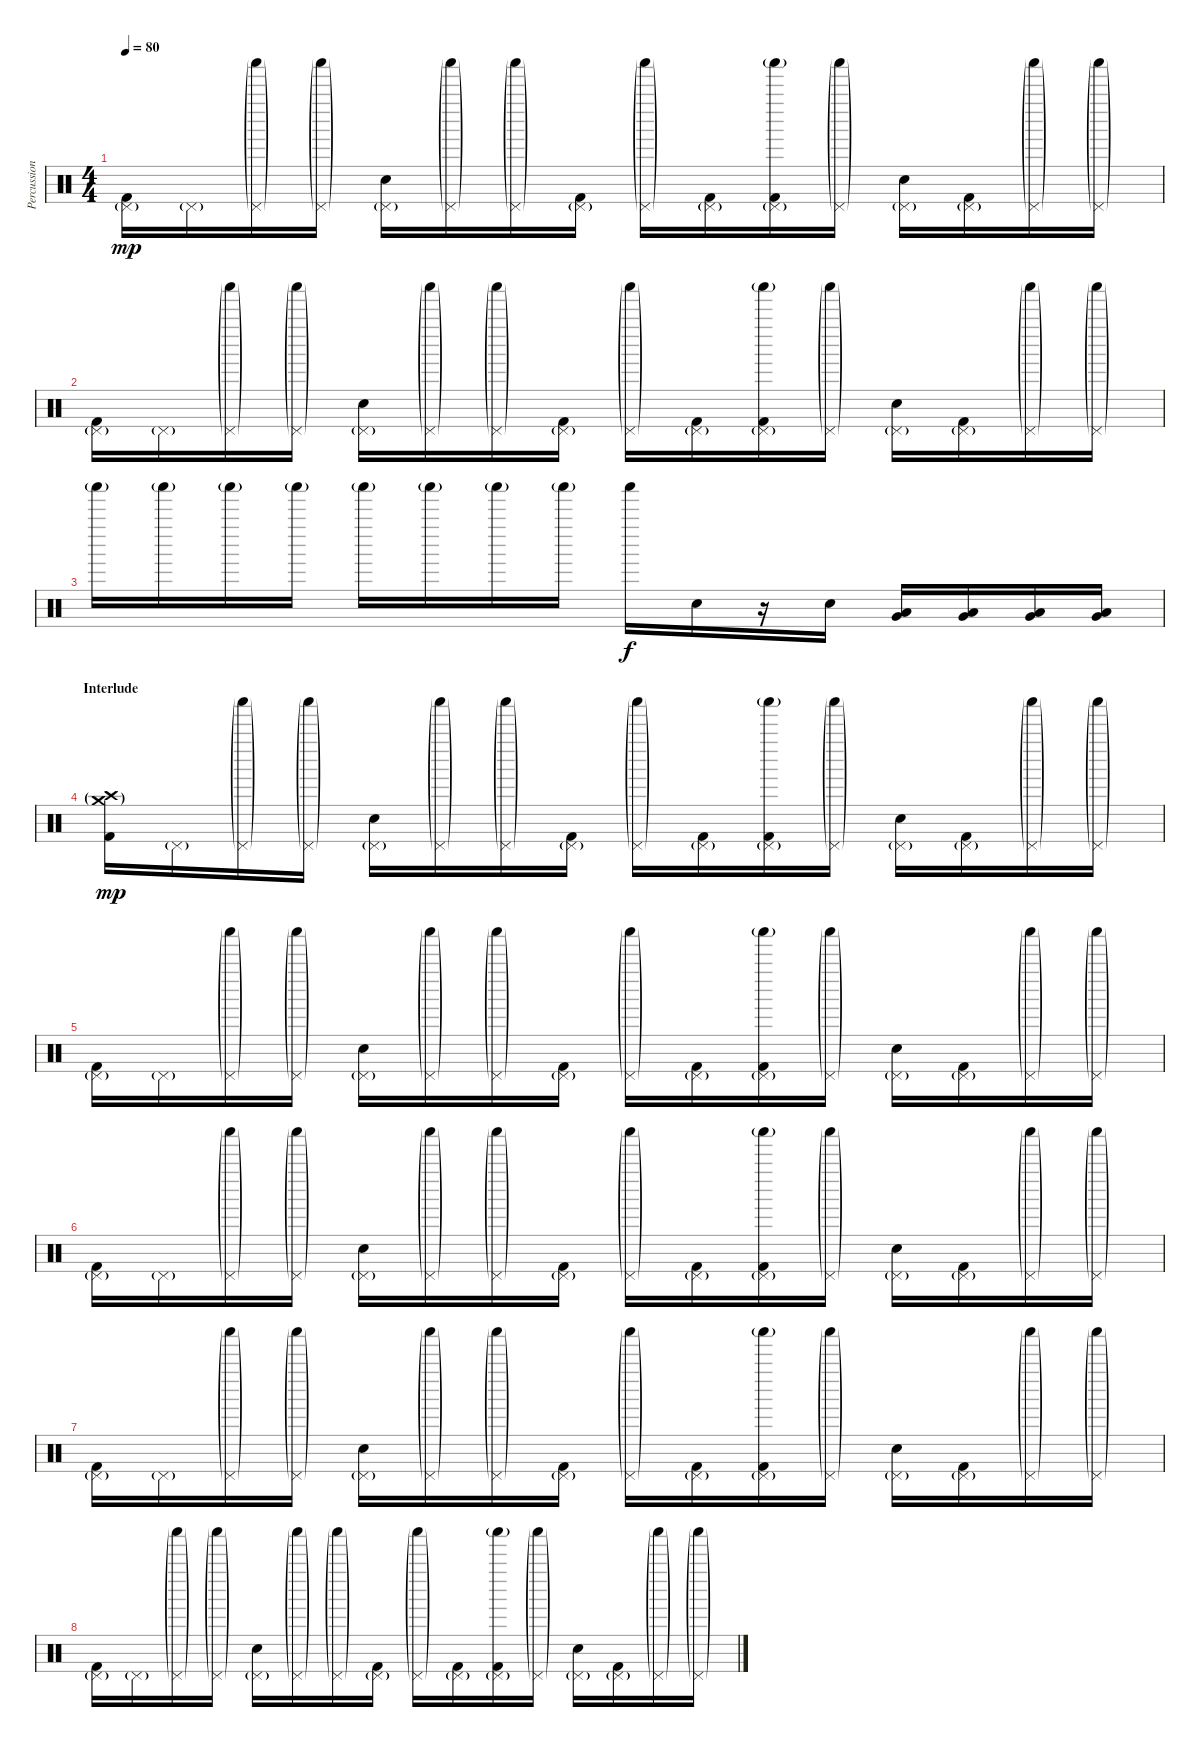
\track ("Percussion" "Percussion") {instrument percussion}
\staff {score}
\articulation defaults
\ts (4 4)
\tempo 80
\clef neutral
\ks c
("Pedal Hi-Hat (hit)"{g} "Kick (hit) 2").16{dy mp} "Pedal Hi-Hat (hit)"{g}.16 ("Pedal Hi-Hat (hit)"{g} "Shaker (hit)"{g}).16 ("Pedal Hi-Hat (hit)"{g} "Shaker (hit)"{g}).16 ("Pedal Hi-Hat (hit)"{g} "Electric Snare (hit)").16 ("Pedal Hi-Hat (hit)"{g} "Shaker (hit)"{g}).16 ("Pedal Hi-Hat (hit)"{g} "Shaker (hit)"{g}).16 ("Pedal Hi-Hat (hit)"{g} "Kick (hit) 2").16 ("Pedal Hi-Hat (hit)"{g} "Shaker (hit)"{g}).16 ("Pedal Hi-Hat (hit)"{g} "Kick (hit) 2").16 ("Pedal Hi-Hat (hit)"{g} "Shaker (hit)"{g} "Kick (hit) 2").16 ("Pedal Hi-Hat (hit)"{g} "Shaker (hit)"{g}).16 ("Pedal Hi-Hat (hit)"{g} "Electric Snare (hit)").16 ("Pedal Hi-Hat (hit)"{g} "Kick (hit) 2").16 ("Pedal Hi-Hat (hit)"{g} "Shaker (hit)"{g}).16 ("Pedal Hi-Hat (hit)"{g} "Shaker (hit)"{g}).16 |
("Pedal Hi-Hat (hit)"{g} "Kick (hit) 2").16 "Pedal Hi-Hat (hit)"{g}.16 ("Pedal Hi-Hat (hit)"{g} "Shaker (hit)"{g}).16 ("Pedal Hi-Hat (hit)"{g} "Shaker (hit)"{g}).16 ("Pedal Hi-Hat (hit)"{g} "Electric Snare (hit)").16 ("Pedal Hi-Hat (hit)"{g} "Shaker (hit)"{g}).16 ("Pedal Hi-Hat (hit)"{g} "Shaker (hit)"{g}).16 ("Pedal Hi-Hat (hit)"{g} "Kick (hit) 2").16 ("Pedal Hi-Hat (hit)"{g} "Shaker (hit)"{g}).16 ("Pedal Hi-Hat (hit)"{g} "Kick (hit) 2").16 ("Pedal Hi-Hat (hit)"{g} "Shaker (hit)"{g} "Kick (hit) 2").16 ("Pedal Hi-Hat (hit)"{g} "Shaker (hit)"{g}).16 ("Pedal Hi-Hat (hit)"{g} "Electric Snare (hit)").16 ("Pedal Hi-Hat (hit)"{g} "Kick (hit) 2").16 ("Pedal Hi-Hat (hit)"{g} "Shaker (hit)"{g}).16 ("Pedal Hi-Hat (hit)"{g} "Shaker (hit)"{g}).16 |
"Shaker (hit)"{g}.16 "Shaker (hit)"{g}.16 "Shaker (hit)"{g}.16 "Shaker (hit)"{g}.16 "Shaker (hit)"{g}.16 "Shaker (hit)"{g}.16 "Shaker (hit)"{g}.16 "Shaker (hit)"{g}.16 "Shaker (hit)".16{dy f} "Electric Snare (hit)".16 r.16 "Electric Snare (hit)".16 ("Low Tom (hit)" "Very Low Tom (hit)").16 ("Low Tom (hit)" "Very Low Tom (hit)").16 ("Very Low Tom (hit)" "Low Floor Tom (hit)").16 ("Very Low Tom (hit)" "Low Floor Tom (hit)").16 |
\section ("" "Interlude")
("Crash high (hit)"{g} "Crash medium (hit)"{g} "Kick (hit) 2").16{dy mp} "Pedal Hi-Hat (hit)"{g}.16 ("Pedal Hi-Hat (hit)"{g} "Shaker (hit)"{g}).16 ("Pedal Hi-Hat (hit)"{g} "Shaker (hit)"{g}).16 ("Pedal Hi-Hat (hit)"{g} "Electric Snare (hit)").16 ("Pedal Hi-Hat (hit)"{g} "Shaker (hit)"{g}).16 ("Pedal Hi-Hat (hit)"{g} "Shaker (hit)"{g}).16 ("Pedal Hi-Hat (hit)"{g} "Kick (hit) 2").16 ("Pedal Hi-Hat (hit)"{g} "Shaker (hit)"{g}).16 ("Pedal Hi-Hat (hit)"{g} "Kick (hit) 2").16 ("Pedal Hi-Hat (hit)"{g} "Shaker (hit)"{g} "Kick (hit) 2").16 ("Pedal Hi-Hat (hit)"{g} "Shaker (hit)"{g}).16 ("Pedal Hi-Hat (hit)"{g} "Electric Snare (hit)").16 ("Pedal Hi-Hat (hit)"{g} "Kick (hit) 2").16 ("Pedal Hi-Hat (hit)"{g} "Shaker (hit)"{g}).16 ("Pedal Hi-Hat (hit)"{g} "Shaker (hit)"{g}).16 |
("Pedal Hi-Hat (hit)"{g} "Kick (hit) 2").16 "Pedal Hi-Hat (hit)"{g}.16 ("Pedal Hi-Hat (hit)"{g} "Shaker (hit)"{g}).16 ("Pedal Hi-Hat (hit)"{g} "Shaker (hit)"{g}).16 ("Pedal Hi-Hat (hit)"{g} "Electric Snare (hit)").16 ("Pedal Hi-Hat (hit)"{g} "Shaker (hit)"{g}).16 ("Pedal Hi-Hat (hit)"{g} "Shaker (hit)"{g}).16 ("Pedal Hi-Hat (hit)"{g} "Kick (hit) 2").16 ("Pedal Hi-Hat (hit)"{g} "Shaker (hit)"{g}).16 ("Pedal Hi-Hat (hit)"{g} "Kick (hit) 2").16 ("Pedal Hi-Hat (hit)"{g} "Shaker (hit)"{g} "Kick (hit) 2").16 ("Pedal Hi-Hat (hit)"{g} "Shaker (hit)"{g}).16 ("Pedal Hi-Hat (hit)"{g} "Electric Snare (hit)").16 ("Pedal Hi-Hat (hit)"{g} "Kick (hit) 2").16 ("Pedal Hi-Hat (hit)"{g} "Shaker (hit)"{g}).16 ("Pedal Hi-Hat (hit)"{g} "Shaker (hit)"{g}).16 |
("Pedal Hi-Hat (hit)"{g} "Kick (hit) 2").16 "Pedal Hi-Hat (hit)"{g}.16 ("Pedal Hi-Hat (hit)"{g} "Shaker (hit)"{g}).16 ("Pedal Hi-Hat (hit)"{g} "Shaker (hit)"{g}).16 ("Pedal Hi-Hat (hit)"{g} "Electric Snare (hit)").16 ("Pedal Hi-Hat (hit)"{g} "Shaker (hit)"{g}).16 ("Pedal Hi-Hat (hit)"{g} "Shaker (hit)"{g}).16 ("Pedal Hi-Hat (hit)"{g} "Kick (hit) 2").16 ("Pedal Hi-Hat (hit)"{g} "Shaker (hit)"{g}).16 ("Pedal Hi-Hat (hit)"{g} "Kick (hit) 2").16 ("Pedal Hi-Hat (hit)"{g} "Shaker (hit)"{g} "Kick (hit) 2").16 ("Pedal Hi-Hat (hit)"{g} "Shaker (hit)"{g}).16 ("Pedal Hi-Hat (hit)"{g} "Electric Snare (hit)").16 ("Pedal Hi-Hat (hit)"{g} "Kick (hit) 2").16 ("Pedal Hi-Hat (hit)"{g} "Shaker (hit)"{g}).16 ("Pedal Hi-Hat (hit)"{g} "Shaker (hit)"{g}).16 |
("Pedal Hi-Hat (hit)"{g} "Kick (hit) 2").16 "Pedal Hi-Hat (hit)"{g}.16 ("Pedal Hi-Hat (hit)"{g} "Shaker (hit)"{g}).16 ("Pedal Hi-Hat (hit)"{g} "Shaker (hit)"{g}).16 ("Pedal Hi-Hat (hit)"{g} "Electric Snare (hit)").16 ("Pedal Hi-Hat (hit)"{g} "Shaker (hit)"{g}).16 ("Pedal Hi-Hat (hit)"{g} "Shaker (hit)"{g}).16 ("Pedal Hi-Hat (hit)"{g} "Kick (hit) 2").16 ("Pedal Hi-Hat (hit)"{g} "Shaker (hit)"{g}).16 ("Pedal Hi-Hat (hit)"{g} "Kick (hit) 2").16 ("Pedal Hi-Hat (hit)"{g} "Shaker (hit)"{g} "Kick (hit) 2").16 ("Pedal Hi-Hat (hit)"{g} "Shaker (hit)"{g}).16 ("Pedal Hi-Hat (hit)"{g} "Electric Snare (hit)").16 ("Pedal Hi-Hat (hit)"{g} "Kick (hit) 2").16 ("Pedal Hi-Hat (hit)"{g} "Shaker (hit)"{g}).16 ("Pedal Hi-Hat (hit)"{g} "Shaker (hit)"{g}).16 |
("Pedal Hi-Hat (hit)"{g} "Kick (hit) 2").16 "Pedal Hi-Hat (hit)"{g}.16 ("Pedal Hi-Hat (hit)"{g} "Shaker (hit)"{g}).16 ("Pedal Hi-Hat (hit)"{g} "Shaker (hit)"{g}).16 ("Pedal Hi-Hat (hit)"{g} "Electric Snare (hit)").16 ("Pedal Hi-Hat (hit)"{g} "Shaker (hit)"{g}).16 ("Pedal Hi-Hat (hit)"{g} "Shaker (hit)"{g}).16 ("Pedal Hi-Hat (hit)"{g} "Kick (hit) 2").16 ("Pedal Hi-Hat (hit)"{g} "Shaker (hit)"{g}).16 ("Pedal Hi-Hat (hit)"{g} "Kick (hit) 2").16 ("Pedal Hi-Hat (hit)"{g} "Shaker (hit)"{g} "Kick (hit) 2").16 ("Pedal Hi-Hat (hit)"{g} "Shaker (hit)"{g}).16 ("Pedal Hi-Hat (hit)"{g} "Electric Snare (hit)").16 ("Pedal Hi-Hat (hit)"{g} "Kick (hit) 2").16 ("Pedal Hi-Hat (hit)"{g} "Shaker (hit)"{g}).16 ("Pedal Hi-Hat (hit)"{g} "Shaker (hit)"{g}).16
